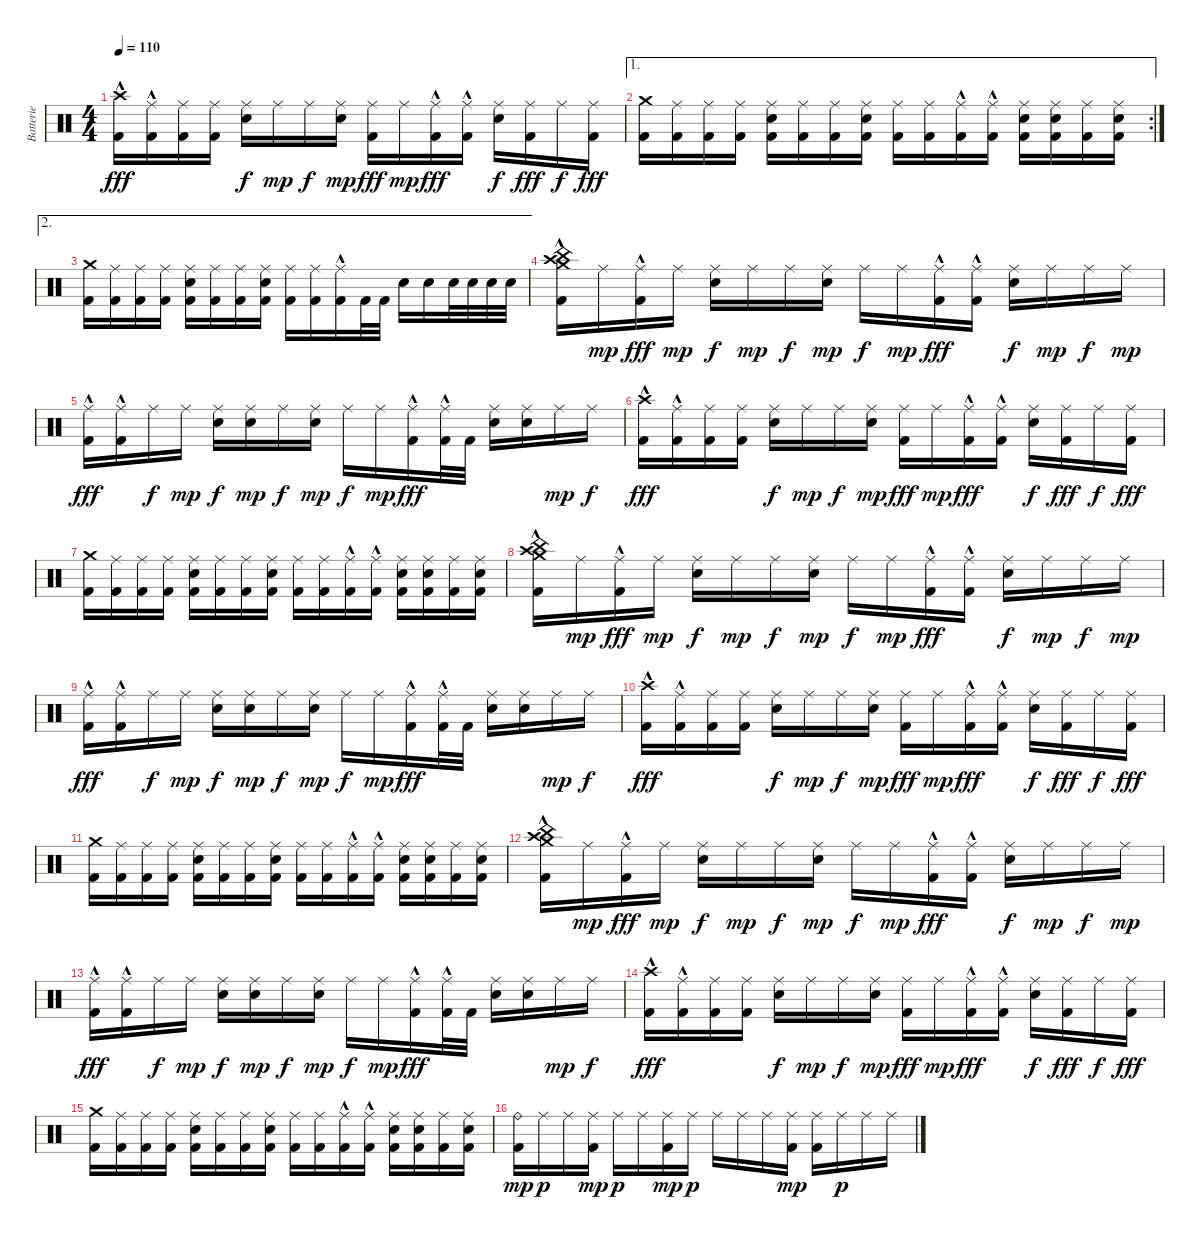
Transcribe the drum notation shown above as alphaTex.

\track ("Batterie" "Batterie") {instrument percussion}
\staff {score}
\articulation defaults
\ts (4 4)
\tempo 110
\clef neutral
\ks c
("Crash high (hit)" "Kick (hit) 2"{hac}).16{dy fff} ("Ride (middle)" "Kick (hit) 2"{hac}).16 ("Ride (middle)" "Kick (hit) 2").16 ("Ride (middle)" "Kick (hit) 2").16 ("Ride (middle)" "Electric Snare (hit)").16{dy f} "Ride (middle)".16{dy mp} "Ride (middle)".16{dy f} ("Ride (middle)" "Electric Snare (hit)").16{dy mp} ("Ride (middle)" "Kick (hit) 2").16{dy fff} "Ride (middle)".16{dy mp} ("Ride (middle)" "Kick (hit) 2"{hac}).16{dy fff} ("Ride (middle)" "Kick (hit) 2"{hac}).16 ("Ride (middle)" "Electric Snare (hit)").16{dy f} ("Ride (middle)" "Kick (hit) 2").16{dy fff} "Ride (middle)".16{dy f} ("Ride (middle)" "Kick (hit) 2").16{dy fff} |
\ae 1
\rc 2
("Crash medium (hit)" "Kick (hit) 2").16 ("Ride (middle)" "Kick (hit) 2").16 ("Ride (middle)" "Kick (hit) 2").16 ("Ride (middle)" "Kick (hit) 2").16 ("Ride (middle)" "Electric Snare (hit)" "Kick (hit) 2").16 ("Ride (middle)" "Kick (hit) 2").16 ("Ride (middle)" "Kick (hit) 2").16 ("Ride (middle)" "Electric Snare (hit)" "Kick (hit) 2").16 ("Ride (middle)" "Kick (hit) 2").16 ("Ride (middle)" "Kick (hit) 2").16 ("Ride (middle)" "Kick (hit) 2"{hac}).16 ("Ride (middle)" "Kick (hit) 2"{hac}).16 ("Ride (middle)" "Electric Snare (hit)" "Kick (hit) 2").16 ("Ride (middle)" "Electric Snare (hit)" "Kick (hit) 2").16 ("Ride (middle)" "Kick (hit) 2").16 ("Ride (middle)" "Electric Snare (hit)" "Kick (hit) 2").16 |
\ae 2
("Crash medium (hit)" "Kick (hit) 2").16 ("Ride (middle)" "Kick (hit) 2").16 ("Ride (middle)" "Kick (hit) 2").16 ("Ride (middle)" "Kick (hit) 2").16 ("Ride (middle)" "Electric Snare (hit)" "Kick (hit) 2").16 ("Ride (middle)" "Kick (hit) 2").16 ("Ride (middle)" "Kick (hit) 2").16 ("Ride (middle)" "Electric Snare (hit)" "Kick (hit) 2").16 ("Ride (middle)" "Kick (hit) 2").16 ("Ride (middle)" "Kick (hit) 2").16 ("Ride (middle)" "Kick (hit) 2"{hac}).16 "Kick (hit) 2".32 "Kick (hit) 2".32 "Electric Snare (hit)".16 "Electric Snare (hit)".16 "Electric Snare (hit)".32 "Electric Snare (hit)".32 "Electric Snare (hit)".32 "Electric Snare (hit)".32 |
("Crash high (hit)" "Crash medium (hit)" "Kick (hit) 2"{hac} "China (hit)").16 "Ride (middle)".16{dy mp} ("Ride (middle)" "Kick (hit) 2"{hac}).16{dy fff} "Ride (middle)".16{dy mp} ("Ride (middle)" "Electric Snare (hit)").16{dy f} "Ride (middle)".16{dy mp} "Ride (middle)".16{dy f} ("Ride (middle)" "Electric Snare (hit)").16{dy mp} "Ride (middle)".16{dy f} "Ride (middle)".16{dy mp} ("Ride (middle)" "Kick (hit) 2"{hac}).16{dy fff} ("Ride (middle)" "Kick (hit) 2"{hac}).16 ("Ride (middle)" "Electric Snare (hit)").16{dy f} "Ride (middle)".16{dy mp} "Ride (middle)".16{dy f} "Ride (middle)".16{dy mp} |
("Ride (middle)" "Kick (hit) 2"{hac}).16{dy fff} ("Ride (middle)" "Kick (hit) 2"{hac}).16 "Ride (middle)".16{dy f} "Ride (middle)".16{dy mp} ("Ride (middle)" "Electric Snare (hit)").16{dy f} ("Ride (middle)" "Electric Snare (hit)").16{dy mp} "Ride (middle)".16{dy f} ("Ride (middle)" "Electric Snare (hit)").16{dy mp} "Ride (middle)".16{dy f} "Ride (middle)".16{dy mp} ("Ride (middle)" "Kick (hit) 2"{hac}).16{dy fff} ("Ride (middle)" "Kick (hit) 2"{hac}).32 "Kick (hit) 2".32 ("Ride (middle)" "Electric Snare (hit)").16 ("Ride (middle)" "Electric Snare (hit)").16 "Ride (middle)".16{dy mp} "Ride (middle)".16{dy f} |
("Crash high (hit)" "Kick (hit) 2"{hac}).16{dy fff} ("Ride (middle)" "Kick (hit) 2"{hac}).16 ("Ride (middle)" "Kick (hit) 2").16 ("Ride (middle)" "Kick (hit) 2").16 ("Ride (middle)" "Electric Snare (hit)").16{dy f} "Ride (middle)".16{dy mp} "Ride (middle)".16{dy f} ("Ride (middle)" "Electric Snare (hit)").16{dy mp} ("Ride (middle)" "Kick (hit) 2").16{dy fff} "Ride (middle)".16{dy mp} ("Ride (middle)" "Kick (hit) 2"{hac}).16{dy fff} ("Ride (middle)" "Kick (hit) 2"{hac}).16 ("Ride (middle)" "Electric Snare (hit)").16{dy f} ("Ride (middle)" "Kick (hit) 2").16{dy fff} "Ride (middle)".16{dy f} ("Ride (middle)" "Kick (hit) 2").16{dy fff} |
("Crash medium (hit)" "Kick (hit) 2").16 ("Ride (middle)" "Kick (hit) 2").16 ("Ride (middle)" "Kick (hit) 2").16 ("Ride (middle)" "Kick (hit) 2").16 ("Ride (middle)" "Electric Snare (hit)" "Kick (hit) 2").16 ("Ride (middle)" "Kick (hit) 2").16 ("Ride (middle)" "Kick (hit) 2").16 ("Ride (middle)" "Electric Snare (hit)" "Kick (hit) 2").16 ("Ride (middle)" "Kick (hit) 2").16 ("Ride (middle)" "Kick (hit) 2").16 ("Ride (middle)" "Kick (hit) 2"{hac}).16 ("Ride (middle)" "Kick (hit) 2"{hac}).16 ("Ride (middle)" "Electric Snare (hit)" "Kick (hit) 2").16 ("Ride (middle)" "Electric Snare (hit)" "Kick (hit) 2").16 ("Ride (middle)" "Kick (hit) 2").16 ("Ride (middle)" "Electric Snare (hit)" "Kick (hit) 2").16 |
("Crash high (hit)" "Crash medium (hit)" "Kick (hit) 2"{hac} "China (hit)").16 "Ride (middle)".16{dy mp} ("Ride (middle)" "Kick (hit) 2"{hac}).16{dy fff} "Ride (middle)".16{dy mp} ("Ride (middle)" "Electric Snare (hit)").16{dy f} "Ride (middle)".16{dy mp} "Ride (middle)".16{dy f} ("Ride (middle)" "Electric Snare (hit)").16{dy mp} "Ride (middle)".16{dy f} "Ride (middle)".16{dy mp} ("Ride (middle)" "Kick (hit) 2"{hac}).16{dy fff} ("Ride (middle)" "Kick (hit) 2"{hac}).16 ("Ride (middle)" "Electric Snare (hit)").16{dy f} "Ride (middle)".16{dy mp} "Ride (middle)".16{dy f} "Ride (middle)".16{dy mp} |
("Ride (middle)" "Kick (hit) 2"{hac}).16{dy fff} ("Ride (middle)" "Kick (hit) 2"{hac}).16 "Ride (middle)".16{dy f} "Ride (middle)".16{dy mp} ("Ride (middle)" "Electric Snare (hit)").16{dy f} ("Ride (middle)" "Electric Snare (hit)").16{dy mp} "Ride (middle)".16{dy f} ("Ride (middle)" "Electric Snare (hit)").16{dy mp} "Ride (middle)".16{dy f} "Ride (middle)".16{dy mp} ("Ride (middle)" "Kick (hit) 2"{hac}).16{dy fff} ("Ride (middle)" "Kick (hit) 2"{hac}).32 "Kick (hit) 2".32 ("Ride (middle)" "Electric Snare (hit)").16 ("Ride (middle)" "Electric Snare (hit)").16 "Ride (middle)".16{dy mp} "Ride (middle)".16{dy f} |
("Crash high (hit)" "Kick (hit) 2"{hac}).16{dy fff} ("Ride (middle)" "Kick (hit) 2"{hac}).16 ("Ride (middle)" "Kick (hit) 2").16 ("Ride (middle)" "Kick (hit) 2").16 ("Ride (middle)" "Electric Snare (hit)").16{dy f} "Ride (middle)".16{dy mp} "Ride (middle)".16{dy f} ("Ride (middle)" "Electric Snare (hit)").16{dy mp} ("Ride (middle)" "Kick (hit) 2").16{dy fff} "Ride (middle)".16{dy mp} ("Ride (middle)" "Kick (hit) 2"{hac}).16{dy fff} ("Ride (middle)" "Kick (hit) 2"{hac}).16 ("Ride (middle)" "Electric Snare (hit)").16{dy f} ("Ride (middle)" "Kick (hit) 2").16{dy fff} "Ride (middle)".16{dy f} ("Ride (middle)" "Kick (hit) 2").16{dy fff} |
("Crash medium (hit)" "Kick (hit) 2").16 ("Ride (middle)" "Kick (hit) 2").16 ("Ride (middle)" "Kick (hit) 2").16 ("Ride (middle)" "Kick (hit) 2").16 ("Ride (middle)" "Electric Snare (hit)" "Kick (hit) 2").16 ("Ride (middle)" "Kick (hit) 2").16 ("Ride (middle)" "Kick (hit) 2").16 ("Ride (middle)" "Electric Snare (hit)" "Kick (hit) 2").16 ("Ride (middle)" "Kick (hit) 2").16 ("Ride (middle)" "Kick (hit) 2").16 ("Ride (middle)" "Kick (hit) 2"{hac}).16 ("Ride (middle)" "Kick (hit) 2"{hac}).16 ("Ride (middle)" "Electric Snare (hit)" "Kick (hit) 2").16 ("Ride (middle)" "Electric Snare (hit)" "Kick (hit) 2").16 ("Ride (middle)" "Kick (hit) 2").16 ("Ride (middle)" "Electric Snare (hit)" "Kick (hit) 2").16 |
("Crash high (hit)" "Crash medium (hit)" "Kick (hit) 2"{hac} "China (hit)").16 "Ride (middle)".16{dy mp} ("Ride (middle)" "Kick (hit) 2"{hac}).16{dy fff} "Ride (middle)".16{dy mp} ("Ride (middle)" "Electric Snare (hit)").16{dy f} "Ride (middle)".16{dy mp} "Ride (middle)".16{dy f} ("Ride (middle)" "Electric Snare (hit)").16{dy mp} "Ride (middle)".16{dy f} "Ride (middle)".16{dy mp} ("Ride (middle)" "Kick (hit) 2"{hac}).16{dy fff} ("Ride (middle)" "Kick (hit) 2"{hac}).16 ("Ride (middle)" "Electric Snare (hit)").16{dy f} "Ride (middle)".16{dy mp} "Ride (middle)".16{dy f} "Ride (middle)".16{dy mp} |
("Ride (middle)" "Kick (hit) 2"{hac}).16{dy fff} ("Ride (middle)" "Kick (hit) 2"{hac}).16 "Ride (middle)".16{dy f} "Ride (middle)".16{dy mp} ("Ride (middle)" "Electric Snare (hit)").16{dy f} ("Ride (middle)" "Electric Snare (hit)").16{dy mp} "Ride (middle)".16{dy f} ("Ride (middle)" "Electric Snare (hit)").16{dy mp} "Ride (middle)".16{dy f} "Ride (middle)".16{dy mp} ("Ride (middle)" "Kick (hit) 2"{hac}).16{dy fff} ("Ride (middle)" "Kick (hit) 2"{hac}).32 "Kick (hit) 2".32 ("Ride (middle)" "Electric Snare (hit)").16 ("Ride (middle)" "Electric Snare (hit)").16 "Ride (middle)".16{dy mp} "Ride (middle)".16{dy f} |
("Crash high (hit)" "Kick (hit) 2"{hac}).16{dy fff} ("Ride (middle)" "Kick (hit) 2"{hac}).16 ("Ride (middle)" "Kick (hit) 2").16 ("Ride (middle)" "Kick (hit) 2").16 ("Ride (middle)" "Electric Snare (hit)").16{dy f} "Ride (middle)".16{dy mp} "Ride (middle)".16{dy f} ("Ride (middle)" "Electric Snare (hit)").16{dy mp} ("Ride (middle)" "Kick (hit) 2").16{dy fff} "Ride (middle)".16{dy mp} ("Ride (middle)" "Kick (hit) 2"{hac}).16{dy fff} ("Ride (middle)" "Kick (hit) 2"{hac}).16 ("Ride (middle)" "Electric Snare (hit)").16{dy f} ("Ride (middle)" "Kick (hit) 2").16{dy fff} "Ride (middle)".16{dy f} ("Ride (middle)" "Kick (hit) 2").16{dy fff} |
("Crash medium (hit)" "Kick (hit) 2").16 ("Ride (middle)" "Kick (hit) 2").16 ("Ride (middle)" "Kick (hit) 2").16 ("Ride (middle)" "Kick (hit) 2").16 ("Ride (middle)" "Electric Snare (hit)" "Kick (hit) 2").16 ("Ride (middle)" "Kick (hit) 2").16 ("Ride (middle)" "Kick (hit) 2").16 ("Ride (middle)" "Electric Snare (hit)" "Kick (hit) 2").16 ("Ride (middle)" "Kick (hit) 2").16 ("Ride (middle)" "Kick (hit) 2").16 ("Ride (middle)" "Kick (hit) 2"{hac}).16 ("Ride (middle)" "Kick (hit) 2"{hac}).16 ("Ride (middle)" "Electric Snare (hit)" "Kick (hit) 2").16 ("Ride (middle)" "Electric Snare (hit)" "Kick (hit) 2").16 ("Ride (middle)" "Kick (hit) 2").16 ("Ride (middle)" "Electric Snare (hit)" "Kick (hit) 2").16 |
("Ride (bell)" "Kick (hit) 2").16{dy mp} "Ride (middle)".16{dy p} "Ride (middle)".16 ("Ride (middle)" "Kick (hit) 2").16{dy mp} "Ride (middle)".16{dy p} "Ride (middle)".16 ("Ride (middle)" "Kick (hit) 2").16{dy mp} "Ride (middle)".16{dy p} "Ride (middle)".16 "Ride (middle)".16 "Ride (middle)".16 ("Ride (middle)" "Kick (hit) 2").16{dy mp} ("Ride (middle)" "Kick (hit) 2").16 "Ride (middle)".16{dy p} "Ride (middle)".16 "Ride (middle)".16
